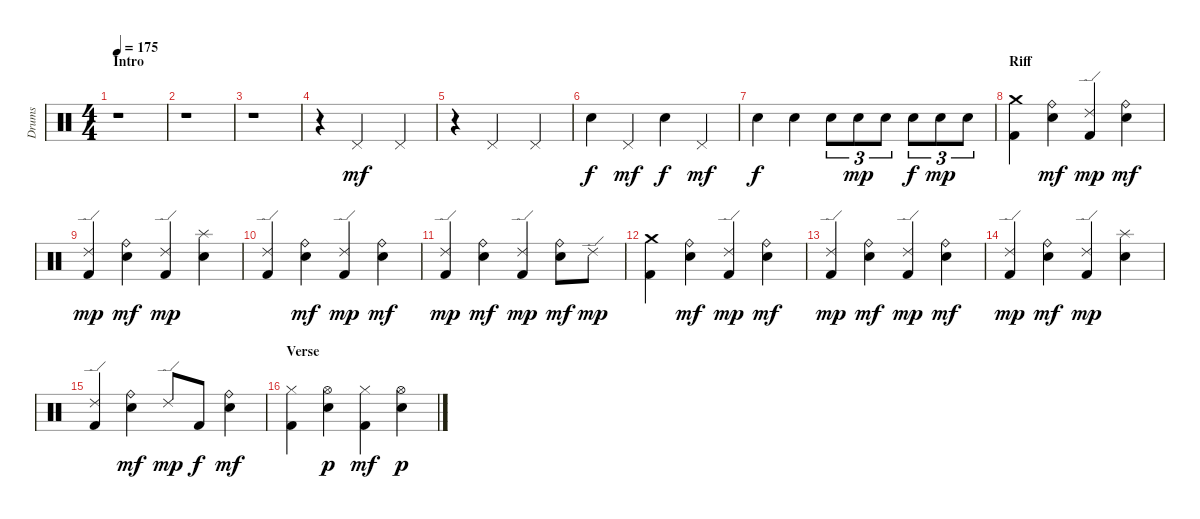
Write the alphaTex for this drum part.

\track ("Drums" "Drums") {instrument percussion}
\staff {score}
\articulation defaults
\ts (4 4)
\section ("" "Intro")
\tempo 175
\clef neutral
\ks c
r.1{dy mf} |
r.1 |
r.1 |
r.4 "Pedal Hi-Hat (hit)".2 "Pedal Hi-Hat (hit)".4 |
r.4 "Pedal Hi-Hat (hit)".2 "Pedal Hi-Hat (hit)".4 |
"Electric Snare (hit)".4{dy f} "Pedal Hi-Hat (hit)".4{dy mf} "Electric Snare (hit)".4{dy f} "Pedal Hi-Hat (hit)".4{dy mf} |
"Electric Snare (hit)".4{dy f} "Electric Snare (hit)".4 "Electric Snare (hit)".8{tu (3 2)} "Electric Snare (hit)".8{tu (3 2) dy mp} "Electric Snare (hit)".8{tu (3 2)} "Electric Snare (hit)".8{tu (3 2) dy f} "Electric Snare (hit)".8{tu (3 2) dy mp} "Electric Snare (hit)".8{tu (3 2)} |
\section ("" "Riff")
("Crash medium (hit)" "Kick (hit) 2").4 ("Ride (bell)" "Electric Snare (hit)").4{dy mf} ("Ride (edge) 2" "Kick (hit) 2").4{dy mp} ("Ride (bell)" "Electric Snare (hit)").4{dy mf} |
("Ride (edge) 2" "Kick (hit) 2").4{dy mp} ("Ride (bell)" "Electric Snare (hit)").4{dy mf} ("Ride (edge) 2" "Kick (hit) 2").4{dy mp} ("Splash (hit)" "Electric Snare (hit)").4 |
("Ride (edge) 2" "Kick (hit) 2").4 ("Ride (bell)" "Electric Snare (hit)").4{dy mf} ("Ride (edge) 2" "Kick (hit) 2").4{dy mp} ("Ride (bell)" "Electric Snare (hit)").4{dy mf} |
("Ride (edge) 2" "Kick (hit) 2").4{dy mp} ("Ride (bell)" "Electric Snare (hit)").4{dy mf} ("Ride (edge) 2" "Kick (hit) 2").4{dy mp} ("Ride (bell)" "Electric Snare (hit)").8{dy mf} "Ride (edge) 2".8{dy mp} |
("Crash medium (hit)" "Kick (hit) 2").4 ("Ride (bell)" "Electric Snare (hit)").4{dy mf} ("Ride (edge) 2" "Kick (hit) 2").4{dy mp} ("Ride (bell)" "Electric Snare (hit)").4{dy mf} |
("Ride (edge) 2" "Kick (hit) 2").4{dy mp} ("Ride (bell)" "Electric Snare (hit)").4{dy mf} ("Ride (edge) 2" "Kick (hit) 2").4{dy mp} ("Ride (bell)" "Electric Snare (hit)").4{dy mf} |
("Ride (edge) 2" "Kick (hit) 2").4{dy mp} ("Ride (bell)" "Electric Snare (hit)").4{dy mf} ("Ride (edge) 2" "Kick (hit) 2").4{dy mp} ("Splash (hit)" "Electric Snare (hit)").4 |
("Ride (edge) 2" "Kick (hit) 2").4 ("Ride (bell)" "Electric Snare (hit)").4{dy mf} "Ride (edge) 2".8{dy mp} "Kick (hit) 2".8{dy f} ("Ride (bell)" "Electric Snare (hit)").4{dy mf} |
\section ("" "Verse")
("Hi-Hat (closed)" "Kick (hit) 2").4 ("Hi-Hat (open)" "Electric Snare (hit)").4{dy p} ("Hi-Hat (closed)" "Kick (hit) 2").4{dy mf} ("Hi-Hat (open)" "Electric Snare (hit)").4{dy p}
